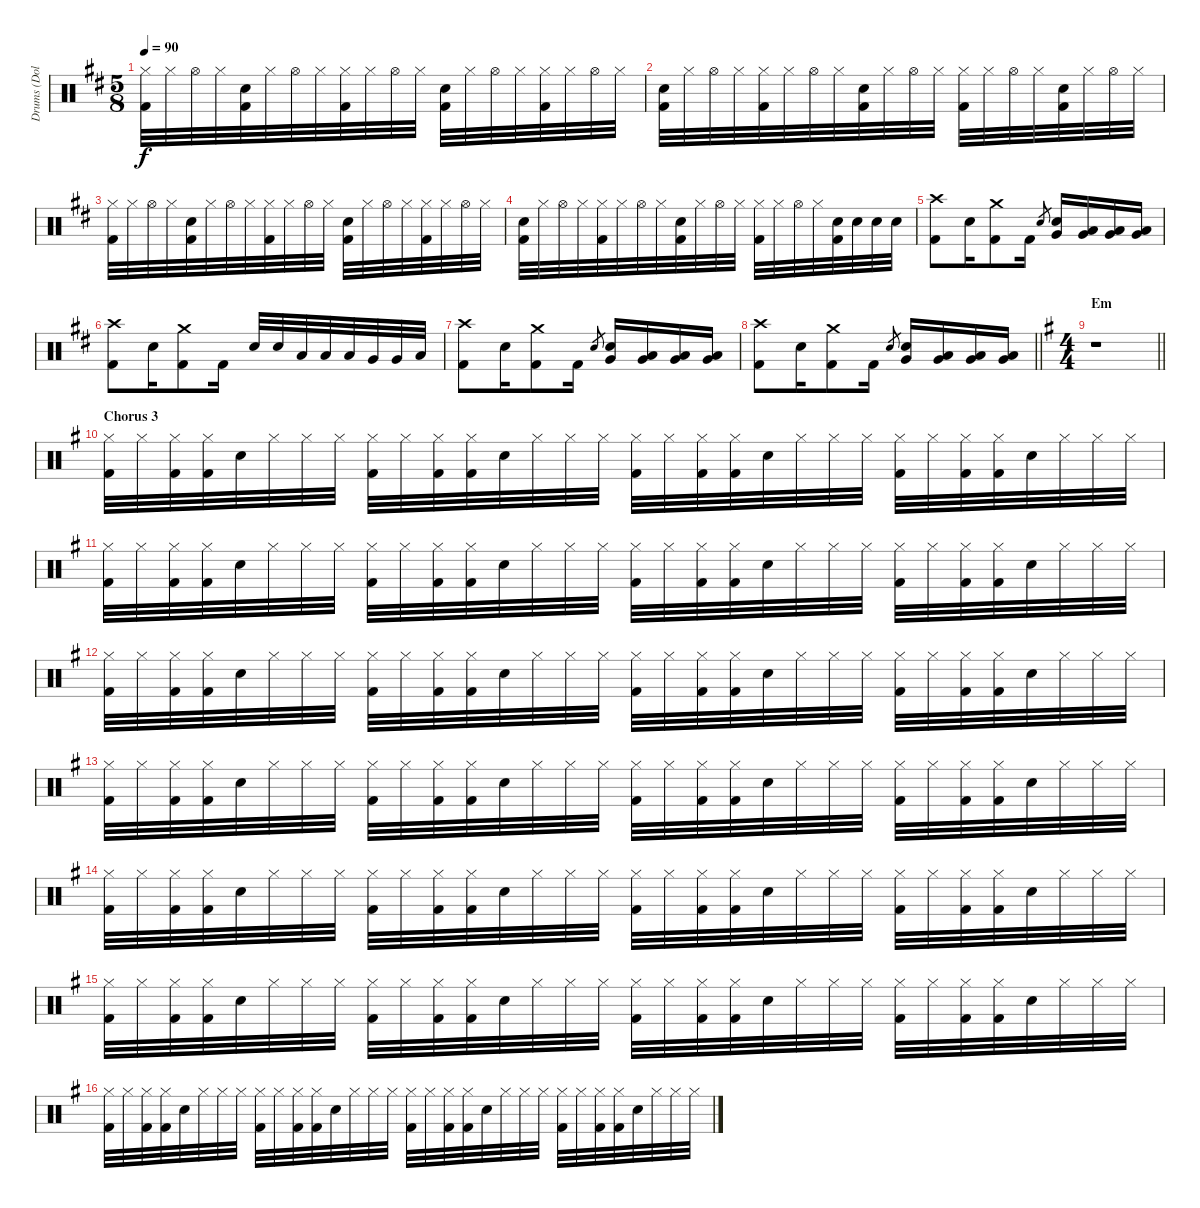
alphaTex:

\track ("Drums (Dolmayan)" "Drums (Dol") {instrument percussion}
\staff {score}
\articulation defaults
\ts (5 8)
\tempo 90
\clef neutral
\ks bminor
("Hi-Hat (closed)" "Kick (hit) 2").32{dy f} "Hi-Hat (closed)".32 "Hi-Hat (open)".32 "Hi-Hat (closed)".32 ("Electric Snare (hit)" "Kick (hit) 2").32 "Hi-Hat (closed)".32 "Hi-Hat (open)".32 "Hi-Hat (closed)".32 ("Hi-Hat (closed)" "Kick (hit) 2").32 "Hi-Hat (closed)".32 "Hi-Hat (open)".32 "Hi-Hat (closed)".32 ("Electric Snare (hit)" "Kick (hit) 2").32 "Hi-Hat (closed)".32 "Hi-Hat (open)".32 "Hi-Hat (closed)".32 ("Hi-Hat (closed)" "Kick (hit) 2").32 "Hi-Hat (closed)".32 "Hi-Hat (open)".32 "Hi-Hat (closed)".32 |
("Electric Snare (hit)" "Kick (hit) 2").32 "Hi-Hat (closed)".32 "Hi-Hat (open)".32 "Hi-Hat (closed)".32 ("Hi-Hat (closed)" "Kick (hit) 2").32 "Hi-Hat (closed)".32 "Hi-Hat (open)".32 "Hi-Hat (closed)".32 ("Electric Snare (hit)" "Kick (hit) 2").32 "Hi-Hat (closed)".32 "Hi-Hat (open)".32 "Hi-Hat (closed)".32 ("Hi-Hat (closed)" "Kick (hit) 2").32 "Hi-Hat (closed)".32 "Hi-Hat (open)".32 "Hi-Hat (closed)".32 ("Electric Snare (hit)" "Kick (hit) 2").32 "Hi-Hat (closed)".32 "Hi-Hat (open)".32 "Hi-Hat (closed)".32 |
("Hi-Hat (closed)" "Kick (hit) 2").32 "Hi-Hat (closed)".32 "Hi-Hat (open)".32 "Hi-Hat (closed)".32 ("Electric Snare (hit)" "Kick (hit) 2").32 "Hi-Hat (closed)".32 "Hi-Hat (open)".32 "Hi-Hat (closed)".32 ("Hi-Hat (closed)" "Kick (hit) 2").32 "Hi-Hat (closed)".32 "Hi-Hat (open)".32 "Hi-Hat (closed)".32 ("Electric Snare (hit)" "Kick (hit) 2").32 "Hi-Hat (closed)".32 "Hi-Hat (open)".32 "Hi-Hat (closed)".32 ("Hi-Hat (closed)" "Kick (hit) 2").32 "Hi-Hat (closed)".32 "Hi-Hat (open)".32 "Hi-Hat (closed)".32 |
("Electric Snare (hit)" "Kick (hit) 2").32 "Hi-Hat (closed)".32 "Hi-Hat (open)".32 "Hi-Hat (closed)".32 ("Hi-Hat (closed)" "Kick (hit) 2").32 "Hi-Hat (closed)".32 "Hi-Hat (open)".32 "Hi-Hat (closed)".32 ("Electric Snare (hit)" "Kick (hit) 2").32 "Hi-Hat (closed)".32 "Hi-Hat (open)".32 "Hi-Hat (closed)".32 ("Hi-Hat (closed)" "Kick (hit) 2").32 "Hi-Hat (closed)".32 "Hi-Hat (open)".32 "Hi-Hat (closed)".32 ("Electric Snare (hit)" "Kick (hit) 2").32 "Electric Snare (hit)".32 "Electric Snare (hit)".32 "Electric Snare (hit)".32 |
("Crash high (hit)" "Kick (hit) 2").8 "Electric Snare (hit)".16 ("Crash medium (hit)" "Kick (hit) 2").8 "Kick (hit) 2".16 "Electric Snare (hit)".8{gr} ("Very Low Tom (hit)" "Electric Snare (hit)").16 ("Low Tom (hit)" "Very Low Tom (hit)").16 ("Very Low Tom (hit)" "Low Floor Tom (hit)").16 ("Very Low Tom (hit)" "Low Floor Tom (hit)").16 |
("Crash high (hit)" "Kick (hit) 2").8 "Electric Snare (hit)".16 ("Crash medium (hit)" "Kick (hit) 2").8 "Kick (hit) 2".16 "Electric Snare (hit)".32 "Electric Snare (hit)".32 "Low Tom (hit)".32 "Low Tom (hit)".32 "Low Tom (hit)".32 "Very Low Tom (hit)".32 "Very Low Tom (hit)".32 "Low Floor Tom (hit)".32 |
("Crash high (hit)" "Kick (hit) 2").8 "Electric Snare (hit)".16 ("Crash medium (hit)" "Kick (hit) 2").8 "Kick (hit) 2".16 "Electric Snare (hit)".8{gr} ("Very Low Tom (hit)" "Electric Snare (hit)").16 ("Low Tom (hit)" "Very Low Tom (hit)").16 ("Very Low Tom (hit)" "Low Floor Tom (hit)").16 ("Very Low Tom (hit)" "Low Floor Tom (hit)").16 |
\barLineRight lightlight
("Crash high (hit)" "Kick (hit) 2").8 "Electric Snare (hit)".16 ("Crash medium (hit)" "Kick (hit) 2").8 "Kick (hit) 2".16 "Electric Snare (hit)".8{gr} ("Very Low Tom (hit)" "Electric Snare (hit)").16 ("Low Tom (hit)" "Very Low Tom (hit)").16 ("Very Low Tom (hit)" "Low Floor Tom (hit)").16 ("Very Low Tom (hit)" "Low Floor Tom (hit)").16 |
\ts (4 4)
\section ("" "Em")
\barLineRight lightlight
\ks eminor
r.1 |
\section ("" "Chorus 3")
("Hi-Hat (closed)" "Kick (hit) 2").32 "Hi-Hat (closed)".32 ("Hi-Hat (closed)" "Kick (hit) 2").32 ("Hi-Hat (closed)" "Kick (hit) 2").32 "Electric Snare (hit)".32 "Hi-Hat (closed)".32 "Hi-Hat (closed)".32 "Hi-Hat (closed)".32 ("Hi-Hat (closed)" "Kick (hit) 2").32 "Hi-Hat (closed)".32 ("Hi-Hat (closed)" "Kick (hit) 2").32 ("Hi-Hat (closed)" "Kick (hit) 2").32 "Electric Snare (hit)".32 "Hi-Hat (closed)".32 "Hi-Hat (closed)".32 "Hi-Hat (closed)".32 ("Hi-Hat (closed)" "Kick (hit) 2").32 "Hi-Hat (closed)".32 ("Hi-Hat (closed)" "Kick (hit) 2").32 ("Hi-Hat (closed)" "Kick (hit) 2").32 "Electric Snare (hit)".32 "Hi-Hat (closed)".32 "Hi-Hat (closed)".32 "Hi-Hat (closed)".32 ("Hi-Hat (closed)" "Kick (hit) 2").32 "Hi-Hat (closed)".32 ("Hi-Hat (closed)" "Kick (hit) 2").32 ("Hi-Hat (closed)" "Kick (hit) 2").32 "Electric Snare (hit)".32 "Hi-Hat (closed)".32 "Hi-Hat (closed)".32 "Hi-Hat (closed)".32 |
("Hi-Hat (closed)" "Kick (hit) 2").32 "Hi-Hat (closed)".32 ("Hi-Hat (closed)" "Kick (hit) 2").32 ("Hi-Hat (closed)" "Kick (hit) 2").32 "Electric Snare (hit)".32 "Hi-Hat (closed)".32 "Hi-Hat (closed)".32 "Hi-Hat (closed)".32 ("Hi-Hat (closed)" "Kick (hit) 2").32 "Hi-Hat (closed)".32 ("Hi-Hat (closed)" "Kick (hit) 2").32 ("Hi-Hat (closed)" "Kick (hit) 2").32 "Electric Snare (hit)".32 "Hi-Hat (closed)".32 "Hi-Hat (closed)".32 "Hi-Hat (closed)".32 ("Hi-Hat (closed)" "Kick (hit) 2").32 "Hi-Hat (closed)".32 ("Hi-Hat (closed)" "Kick (hit) 2").32 ("Hi-Hat (closed)" "Kick (hit) 2").32 "Electric Snare (hit)".32 "Hi-Hat (closed)".32 "Hi-Hat (closed)".32 "Hi-Hat (closed)".32 ("Hi-Hat (closed)" "Kick (hit) 2").32 "Hi-Hat (closed)".32 ("Hi-Hat (closed)" "Kick (hit) 2").32 ("Hi-Hat (closed)" "Kick (hit) 2").32 "Electric Snare (hit)".32 "Hi-Hat (closed)".32 "Hi-Hat (closed)".32 "Hi-Hat (closed)".32 |
("Hi-Hat (closed)" "Kick (hit) 2").32 "Hi-Hat (closed)".32 ("Hi-Hat (closed)" "Kick (hit) 2").32 ("Hi-Hat (closed)" "Kick (hit) 2").32 "Electric Snare (hit)".32 "Hi-Hat (closed)".32 "Hi-Hat (closed)".32 "Hi-Hat (closed)".32 ("Hi-Hat (closed)" "Kick (hit) 2").32 "Hi-Hat (closed)".32 ("Hi-Hat (closed)" "Kick (hit) 2").32 ("Hi-Hat (closed)" "Kick (hit) 2").32 "Electric Snare (hit)".32 "Hi-Hat (closed)".32 "Hi-Hat (closed)".32 "Hi-Hat (closed)".32 ("Hi-Hat (closed)" "Kick (hit) 2").32 "Hi-Hat (closed)".32 ("Hi-Hat (closed)" "Kick (hit) 2").32 ("Hi-Hat (closed)" "Kick (hit) 2").32 "Electric Snare (hit)".32 "Hi-Hat (closed)".32 "Hi-Hat (closed)".32 "Hi-Hat (closed)".32 ("Hi-Hat (closed)" "Kick (hit) 2").32 "Hi-Hat (closed)".32 ("Hi-Hat (closed)" "Kick (hit) 2").32 ("Hi-Hat (closed)" "Kick (hit) 2").32 "Electric Snare (hit)".32 "Hi-Hat (closed)".32 "Hi-Hat (closed)".32 "Hi-Hat (closed)".32 |
("Hi-Hat (closed)" "Kick (hit) 2").32 "Hi-Hat (closed)".32 ("Hi-Hat (closed)" "Kick (hit) 2").32 ("Hi-Hat (closed)" "Kick (hit) 2").32 "Electric Snare (hit)".32 "Hi-Hat (closed)".32 "Hi-Hat (closed)".32 "Hi-Hat (closed)".32 ("Hi-Hat (closed)" "Kick (hit) 2").32 "Hi-Hat (closed)".32 ("Hi-Hat (closed)" "Kick (hit) 2").32 ("Hi-Hat (closed)" "Kick (hit) 2").32 "Electric Snare (hit)".32 "Hi-Hat (closed)".32 "Hi-Hat (closed)".32 "Hi-Hat (closed)".32 ("Hi-Hat (closed)" "Kick (hit) 2").32 "Hi-Hat (closed)".32 ("Hi-Hat (closed)" "Kick (hit) 2").32 ("Hi-Hat (closed)" "Kick (hit) 2").32 "Electric Snare (hit)".32 "Hi-Hat (closed)".32 "Hi-Hat (closed)".32 "Hi-Hat (closed)".32 ("Hi-Hat (closed)" "Kick (hit) 2").32 "Hi-Hat (closed)".32 ("Hi-Hat (closed)" "Kick (hit) 2").32 ("Hi-Hat (closed)" "Kick (hit) 2").32 "Electric Snare (hit)".32 "Hi-Hat (closed)".32 "Hi-Hat (closed)".32 "Hi-Hat (closed)".32 |
("Hi-Hat (closed)" "Kick (hit) 2").32 "Hi-Hat (closed)".32 ("Hi-Hat (closed)" "Kick (hit) 2").32 ("Hi-Hat (closed)" "Kick (hit) 2").32 "Electric Snare (hit)".32 "Hi-Hat (closed)".32 "Hi-Hat (closed)".32 "Hi-Hat (closed)".32 ("Hi-Hat (closed)" "Kick (hit) 2").32 "Hi-Hat (closed)".32 ("Hi-Hat (closed)" "Kick (hit) 2").32 ("Hi-Hat (closed)" "Kick (hit) 2").32 "Electric Snare (hit)".32 "Hi-Hat (closed)".32 "Hi-Hat (closed)".32 "Hi-Hat (closed)".32 ("Hi-Hat (closed)" "Kick (hit) 2").32 "Hi-Hat (closed)".32 ("Hi-Hat (closed)" "Kick (hit) 2").32 ("Hi-Hat (closed)" "Kick (hit) 2").32 "Electric Snare (hit)".32 "Hi-Hat (closed)".32 "Hi-Hat (closed)".32 "Hi-Hat (closed)".32 ("Hi-Hat (closed)" "Kick (hit) 2").32 "Hi-Hat (closed)".32 ("Hi-Hat (closed)" "Kick (hit) 2").32 ("Hi-Hat (closed)" "Kick (hit) 2").32 "Electric Snare (hit)".32 "Hi-Hat (closed)".32 "Hi-Hat (closed)".32 "Hi-Hat (closed)".32 |
("Hi-Hat (closed)" "Kick (hit) 2").32 "Hi-Hat (closed)".32 ("Hi-Hat (closed)" "Kick (hit) 2").32 ("Hi-Hat (closed)" "Kick (hit) 2").32 "Electric Snare (hit)".32 "Hi-Hat (closed)".32 "Hi-Hat (closed)".32 "Hi-Hat (closed)".32 ("Hi-Hat (closed)" "Kick (hit) 2").32 "Hi-Hat (closed)".32 ("Hi-Hat (closed)" "Kick (hit) 2").32 ("Hi-Hat (closed)" "Kick (hit) 2").32 "Electric Snare (hit)".32 "Hi-Hat (closed)".32 "Hi-Hat (closed)".32 "Hi-Hat (closed)".32 ("Hi-Hat (closed)" "Kick (hit) 2").32 "Hi-Hat (closed)".32 ("Hi-Hat (closed)" "Kick (hit) 2").32 ("Hi-Hat (closed)" "Kick (hit) 2").32 "Electric Snare (hit)".32 "Hi-Hat (closed)".32 "Hi-Hat (closed)".32 "Hi-Hat (closed)".32 ("Hi-Hat (closed)" "Kick (hit) 2").32 "Hi-Hat (closed)".32 ("Hi-Hat (closed)" "Kick (hit) 2").32 ("Hi-Hat (closed)" "Kick (hit) 2").32 "Electric Snare (hit)".32 "Hi-Hat (closed)".32 "Hi-Hat (closed)".32 "Hi-Hat (closed)".32 |
("Hi-Hat (closed)" "Kick (hit) 2").32 "Hi-Hat (closed)".32 ("Hi-Hat (closed)" "Kick (hit) 2").32 ("Hi-Hat (closed)" "Kick (hit) 2").32 "Electric Snare (hit)".32 "Hi-Hat (closed)".32 "Hi-Hat (closed)".32 "Hi-Hat (closed)".32 ("Hi-Hat (closed)" "Kick (hit) 2").32 "Hi-Hat (closed)".32 ("Hi-Hat (closed)" "Kick (hit) 2").32 ("Hi-Hat (closed)" "Kick (hit) 2").32 "Electric Snare (hit)".32 "Hi-Hat (closed)".32 "Hi-Hat (closed)".32 "Hi-Hat (closed)".32 ("Hi-Hat (closed)" "Kick (hit) 2").32 "Hi-Hat (closed)".32 ("Hi-Hat (closed)" "Kick (hit) 2").32 ("Hi-Hat (closed)" "Kick (hit) 2").32 "Electric Snare (hit)".32 "Hi-Hat (closed)".32 "Hi-Hat (closed)".32 "Hi-Hat (closed)".32 ("Hi-Hat (closed)" "Kick (hit) 2").32 "Hi-Hat (closed)".32 ("Hi-Hat (closed)" "Kick (hit) 2").32 ("Hi-Hat (closed)" "Kick (hit) 2").32 "Electric Snare (hit)".32 "Hi-Hat (closed)".32 "Hi-Hat (closed)".32 "Hi-Hat (closed)".32
